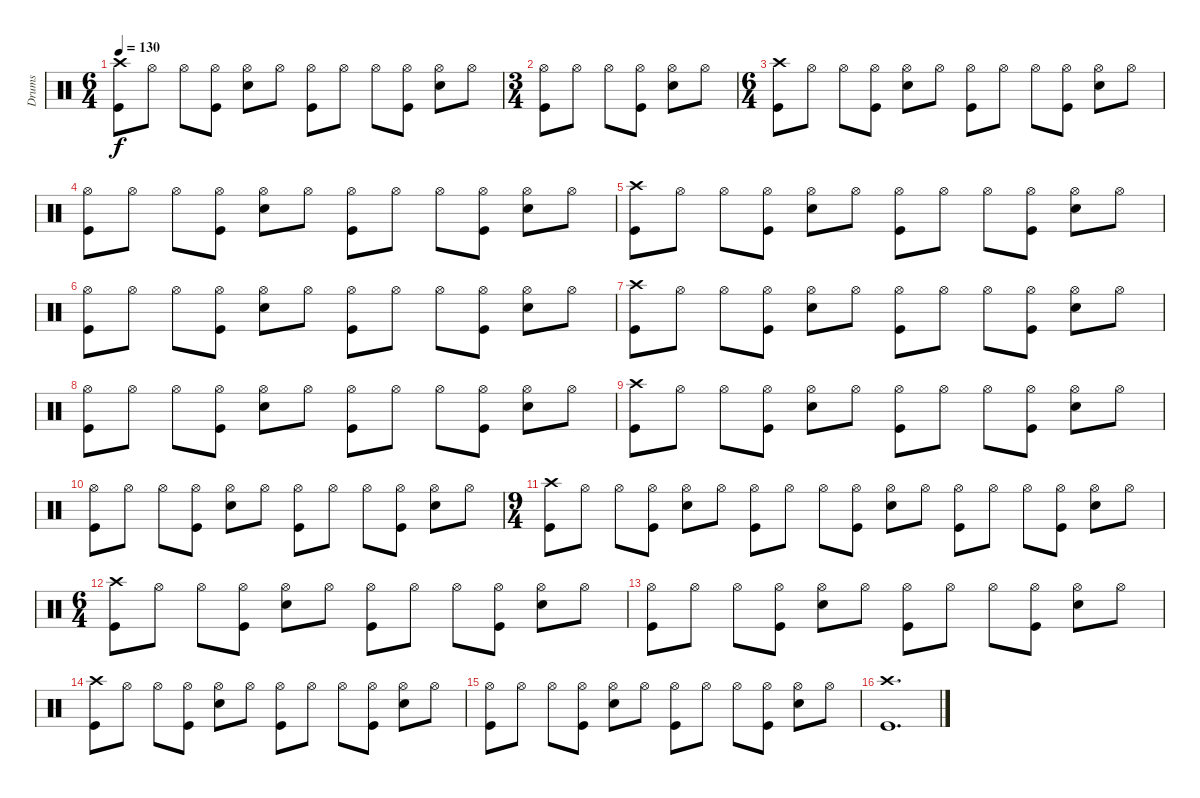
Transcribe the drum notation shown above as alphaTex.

\track ("Drums" "Drums") {instrument percussion}
\staff {score}
\articulation defaults
\ts (6 4)
\tempo 130
\clef neutral
\ks c
("Crash high (hit)" "Kick (hit)").8{dy f} "Hi-Hat (open)".8 "Hi-Hat (open)".8 ("Hi-Hat (open)" "Kick (hit)").8 ("Hi-Hat (open)" "Electric Snare (hit)").8 "Hi-Hat (open)".8 ("Hi-Hat (open)" "Kick (hit)").8 "Hi-Hat (open)".8 "Hi-Hat (open)".8 ("Hi-Hat (open)" "Kick (hit)").8 ("Hi-Hat (open)" "Electric Snare (hit)").8 "Hi-Hat (open)".8 |
\ts (3 4)
("Hi-Hat (open)" "Kick (hit)").8 "Hi-Hat (open)".8 "Hi-Hat (open)".8 ("Hi-Hat (open)" "Kick (hit)").8 ("Hi-Hat (open)" "Electric Snare (hit)").8 "Hi-Hat (open)".8 |
\ts (6 4)
("Crash high (hit)" "Kick (hit)").8 "Hi-Hat (open)".8 "Hi-Hat (open)".8 ("Hi-Hat (open)" "Kick (hit)").8 ("Hi-Hat (open)" "Electric Snare (hit)").8 "Hi-Hat (open)".8 ("Hi-Hat (open)" "Kick (hit)").8 "Hi-Hat (open)".8 "Hi-Hat (open)".8 ("Hi-Hat (open)" "Kick (hit)").8 ("Hi-Hat (open)" "Electric Snare (hit)").8 "Hi-Hat (open)".8 |
("Hi-Hat (open)" "Kick (hit)").8 "Hi-Hat (open)".8 "Hi-Hat (open)".8 ("Hi-Hat (open)" "Kick (hit)").8 ("Hi-Hat (open)" "Electric Snare (hit)").8 "Hi-Hat (open)".8 ("Hi-Hat (open)" "Kick (hit)").8 "Hi-Hat (open)".8 "Hi-Hat (open)".8 ("Hi-Hat (open)" "Kick (hit)").8 ("Hi-Hat (open)" "Electric Snare (hit)").8 "Hi-Hat (open)".8 |
("Crash high (hit)" "Kick (hit)").8 "Hi-Hat (open)".8 "Hi-Hat (open)".8 ("Hi-Hat (open)" "Kick (hit)").8 ("Hi-Hat (open)" "Electric Snare (hit)").8 "Hi-Hat (open)".8 ("Hi-Hat (open)" "Kick (hit)").8 "Hi-Hat (open)".8 "Hi-Hat (open)".8 ("Hi-Hat (open)" "Kick (hit)").8 ("Hi-Hat (open)" "Electric Snare (hit)").8 "Hi-Hat (open)".8 |
("Hi-Hat (open)" "Kick (hit)").8 "Hi-Hat (open)".8 "Hi-Hat (open)".8 ("Hi-Hat (open)" "Kick (hit)").8 ("Hi-Hat (open)" "Electric Snare (hit)").8 "Hi-Hat (open)".8 ("Hi-Hat (open)" "Kick (hit)").8 "Hi-Hat (open)".8 "Hi-Hat (open)".8 ("Hi-Hat (open)" "Kick (hit)").8 ("Hi-Hat (open)" "Electric Snare (hit)").8 "Hi-Hat (open)".8 |
("Crash high (hit)" "Kick (hit)").8 "Hi-Hat (open)".8 "Hi-Hat (open)".8 ("Hi-Hat (open)" "Kick (hit)").8 ("Hi-Hat (open)" "Electric Snare (hit)").8 "Hi-Hat (open)".8 ("Hi-Hat (open)" "Kick (hit)").8 "Hi-Hat (open)".8 "Hi-Hat (open)".8 ("Hi-Hat (open)" "Kick (hit)").8 ("Hi-Hat (open)" "Electric Snare (hit)").8 "Hi-Hat (open)".8 |
("Hi-Hat (open)" "Kick (hit)").8 "Hi-Hat (open)".8 "Hi-Hat (open)".8 ("Hi-Hat (open)" "Kick (hit)").8 ("Hi-Hat (open)" "Electric Snare (hit)").8 "Hi-Hat (open)".8 ("Hi-Hat (open)" "Kick (hit)").8 "Hi-Hat (open)".8 "Hi-Hat (open)".8 ("Hi-Hat (open)" "Kick (hit)").8 ("Hi-Hat (open)" "Electric Snare (hit)").8 "Hi-Hat (open)".8 |
("Crash high (hit)" "Kick (hit)").8 "Hi-Hat (open)".8 "Hi-Hat (open)".8 ("Hi-Hat (open)" "Kick (hit)").8 ("Hi-Hat (open)" "Electric Snare (hit)").8 "Hi-Hat (open)".8 ("Hi-Hat (open)" "Kick (hit)").8 "Hi-Hat (open)".8 "Hi-Hat (open)".8 ("Hi-Hat (open)" "Kick (hit)").8 ("Hi-Hat (open)" "Electric Snare (hit)").8 "Hi-Hat (open)".8 |
("Hi-Hat (open)" "Kick (hit)").8 "Hi-Hat (open)".8 "Hi-Hat (open)".8 ("Hi-Hat (open)" "Kick (hit)").8 ("Hi-Hat (open)" "Electric Snare (hit)").8 "Hi-Hat (open)".8 ("Hi-Hat (open)" "Kick (hit)").8 "Hi-Hat (open)".8 "Hi-Hat (open)".8 ("Hi-Hat (open)" "Kick (hit)").8 ("Hi-Hat (open)" "Electric Snare (hit)").8 "Hi-Hat (open)".8 |
\ts (9 4)
("Crash high (hit)" "Kick (hit)").8 "Hi-Hat (open)".8 "Hi-Hat (open)".8 ("Hi-Hat (open)" "Kick (hit)").8 ("Hi-Hat (open)" "Electric Snare (hit)").8 "Hi-Hat (open)".8 ("Hi-Hat (open)" "Kick (hit)").8 "Hi-Hat (open)".8 "Hi-Hat (open)".8 ("Hi-Hat (open)" "Kick (hit)").8 ("Hi-Hat (open)" "Electric Snare (hit)").8 "Hi-Hat (open)".8 ("Hi-Hat (open)" "Kick (hit)").8 "Hi-Hat (open)".8 "Hi-Hat (open)".8 ("Hi-Hat (open)" "Kick (hit)").8 ("Hi-Hat (open)" "Electric Snare (hit)").8 "Hi-Hat (open)".8 |
\ts (6 4)
("Crash high (hit)" "Kick (hit)").8 "Hi-Hat (open)".8 "Hi-Hat (open)".8 ("Hi-Hat (open)" "Kick (hit)").8 ("Hi-Hat (open)" "Electric Snare (hit)").8 "Hi-Hat (open)".8 ("Hi-Hat (open)" "Kick (hit)").8 "Hi-Hat (open)".8 "Hi-Hat (open)".8 ("Hi-Hat (open)" "Kick (hit)").8 ("Hi-Hat (open)" "Electric Snare (hit)").8 "Hi-Hat (open)".8 |
("Hi-Hat (open)" "Kick (hit)").8 "Hi-Hat (open)".8 "Hi-Hat (open)".8 ("Hi-Hat (open)" "Kick (hit)").8 ("Hi-Hat (open)" "Electric Snare (hit)").8 "Hi-Hat (open)".8 ("Hi-Hat (open)" "Kick (hit)").8 "Hi-Hat (open)".8 "Hi-Hat (open)".8 ("Hi-Hat (open)" "Kick (hit)").8 ("Hi-Hat (open)" "Electric Snare (hit)").8 "Hi-Hat (open)".8 |
("Crash high (hit)" "Kick (hit)").8 "Hi-Hat (open)".8 "Hi-Hat (open)".8 ("Hi-Hat (open)" "Kick (hit)").8 ("Hi-Hat (open)" "Electric Snare (hit)").8 "Hi-Hat (open)".8 ("Hi-Hat (open)" "Kick (hit)").8 "Hi-Hat (open)".8 "Hi-Hat (open)".8 ("Hi-Hat (open)" "Kick (hit)").8 ("Hi-Hat (open)" "Electric Snare (hit)").8 "Hi-Hat (open)".8 |
("Hi-Hat (open)" "Kick (hit)").8 "Hi-Hat (open)".8 "Hi-Hat (open)".8 ("Hi-Hat (open)" "Kick (hit)").8 ("Hi-Hat (open)" "Electric Snare (hit)").8 "Hi-Hat (open)".8 ("Hi-Hat (open)" "Kick (hit)").8 "Hi-Hat (open)".8 "Hi-Hat (open)".8 ("Hi-Hat (open)" "Kick (hit)").8 ("Hi-Hat (open)" "Electric Snare (hit)").8 "Hi-Hat (open)".8 |
("Crash high (hit)" "Kick (hit)").1{d}
